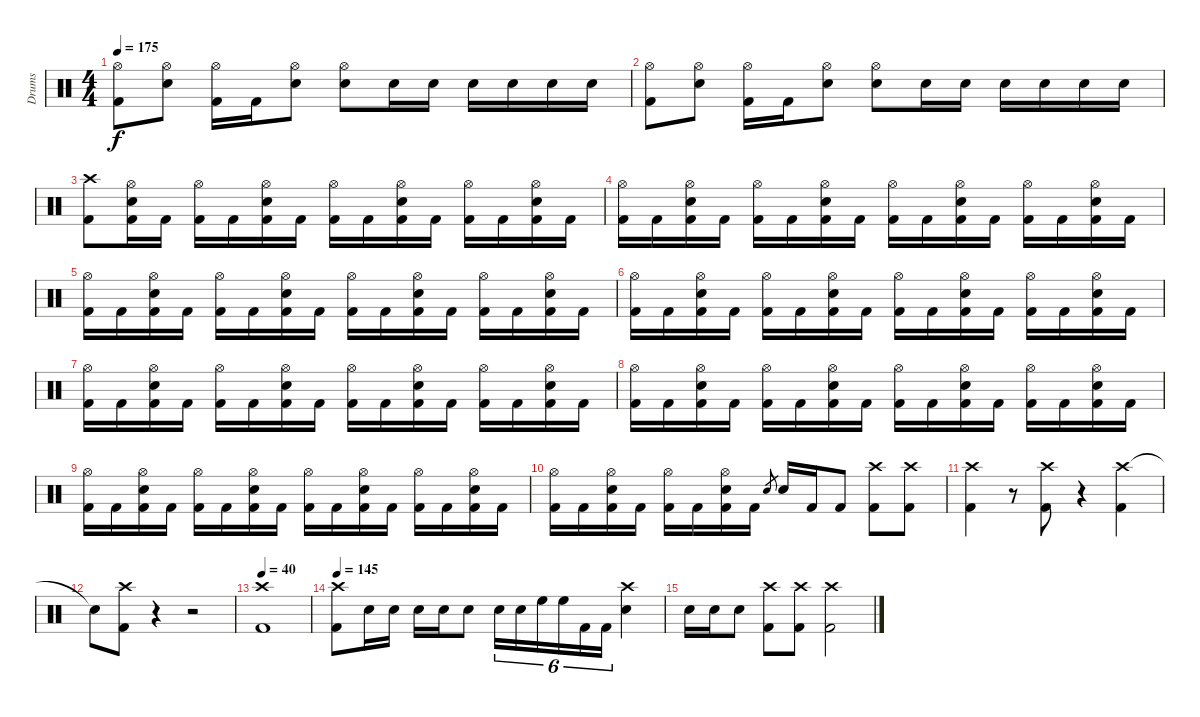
\track ("Drums" "Drums") {instrument percussion}
\staff {score}
\articulation defaults
\ts (4 4)
\tempo 175
\clef neutral
\ks c
("Hi-Hat (open)" "Kick (hit) 2").8{dy f} ("Hi-Hat (open)" "Snare (hit) 2").8 ("Hi-Hat (open)" "Kick (hit) 2").16 "Kick (hit) 2".16 ("Hi-Hat (open)" "Snare (hit) 2").8 ("Hi-Hat (open)" "Snare (hit) 2").8 "Snare (hit) 2".16 "Snare (hit) 2".16 "Snare (hit) 2".16 "Snare (hit) 2".16 "Snare (hit) 2".16 "Snare (hit) 2".16 |
("Hi-Hat (open)" "Kick (hit) 2").8 ("Hi-Hat (open)" "Snare (hit) 2").8 ("Hi-Hat (open)" "Kick (hit) 2").16 "Kick (hit) 2".16 ("Hi-Hat (open)" "Snare (hit) 2").8 ("Hi-Hat (open)" "Snare (hit) 2").8 "Snare (hit) 2".16 "Snare (hit) 2".16 "Snare (hit) 2".16 "Snare (hit) 2".16 "Snare (hit) 2".16 "Snare (hit) 2".16 |
("Crash high (hit)" "Kick (hit) 2").8 ("Hi-Hat (open)" "Snare (hit) 2" "Kick (hit) 2").16 "Kick (hit) 2".16 ("Hi-Hat (open)" "Kick (hit) 2").16 "Kick (hit) 2".16 ("Hi-Hat (open)" "Snare (hit) 2" "Kick (hit) 2").16 "Kick (hit) 2".16 ("Hi-Hat (open)" "Kick (hit) 2").16 "Kick (hit) 2".16 ("Hi-Hat (open)" "Snare (hit) 2" "Kick (hit) 2").16 "Kick (hit) 2".16 ("Hi-Hat (open)" "Kick (hit) 2").16 "Kick (hit) 2".16 ("Hi-Hat (open)" "Snare (hit) 2" "Kick (hit) 2").16 "Kick (hit) 2".16 |
("Hi-Hat (open)" "Kick (hit) 2").16 "Kick (hit) 2".16 ("Hi-Hat (open)" "Snare (hit) 2" "Kick (hit) 2").16 "Kick (hit) 2".16 ("Hi-Hat (open)" "Kick (hit) 2").16 "Kick (hit) 2".16 ("Hi-Hat (open)" "Snare (hit) 2" "Kick (hit) 2").16 "Kick (hit) 2".16 ("Hi-Hat (open)" "Kick (hit) 2").16 "Kick (hit) 2".16 ("Hi-Hat (open)" "Snare (hit) 2" "Kick (hit) 2").16 "Kick (hit) 2".16 ("Hi-Hat (open)" "Kick (hit) 2").16 "Kick (hit) 2".16 ("Hi-Hat (open)" "Snare (hit) 2" "Kick (hit) 2").16 "Kick (hit) 2".16 |
("Hi-Hat (open)" "Kick (hit) 2").16 "Kick (hit) 2".16 ("Hi-Hat (open)" "Snare (hit) 2" "Kick (hit) 2").16 "Kick (hit) 2".16 ("Hi-Hat (open)" "Kick (hit) 2").16 "Kick (hit) 2".16 ("Hi-Hat (open)" "Snare (hit) 2" "Kick (hit) 2").16 "Kick (hit) 2".16 ("Hi-Hat (open)" "Kick (hit) 2").16 "Kick (hit) 2".16 ("Hi-Hat (open)" "Snare (hit) 2" "Kick (hit) 2").16 "Kick (hit) 2".16 ("Hi-Hat (open)" "Kick (hit) 2").16 "Kick (hit) 2".16 ("Hi-Hat (open)" "Snare (hit) 2" "Kick (hit) 2").16 "Kick (hit) 2".16 |
("Hi-Hat (open)" "Kick (hit) 2").16 "Kick (hit) 2".16 ("Hi-Hat (open)" "Snare (hit) 2" "Kick (hit) 2").16 "Kick (hit) 2".16 ("Hi-Hat (open)" "Kick (hit) 2").16 "Kick (hit) 2".16 ("Hi-Hat (open)" "Snare (hit) 2" "Kick (hit) 2").16 "Kick (hit) 2".16 ("Hi-Hat (open)" "Kick (hit) 2").16 "Kick (hit) 2".16 ("Hi-Hat (open)" "Snare (hit) 2" "Kick (hit) 2").16 "Kick (hit) 2".16 ("Hi-Hat (open)" "Kick (hit) 2").16 "Kick (hit) 2".16 ("Hi-Hat (open)" "Snare (hit) 2" "Kick (hit) 2").16 "Kick (hit) 2".16 |
("Hi-Hat (open)" "Kick (hit) 2").16 "Kick (hit) 2".16 ("Hi-Hat (open)" "Snare (hit) 2" "Kick (hit) 2").16 "Kick (hit) 2".16 ("Hi-Hat (open)" "Kick (hit) 2").16 "Kick (hit) 2".16 ("Hi-Hat (open)" "Snare (hit) 2" "Kick (hit) 2").16 "Kick (hit) 2".16 ("Hi-Hat (open)" "Kick (hit) 2").16 "Kick (hit) 2".16 ("Hi-Hat (open)" "Snare (hit) 2" "Kick (hit) 2").16 "Kick (hit) 2".16 ("Hi-Hat (open)" "Kick (hit) 2").16 "Kick (hit) 2".16 ("Hi-Hat (open)" "Snare (hit) 2" "Kick (hit) 2").16 "Kick (hit) 2".16 |
("Hi-Hat (open)" "Kick (hit) 2").16 "Kick (hit) 2".16 ("Hi-Hat (open)" "Snare (hit) 2" "Kick (hit) 2").16 "Kick (hit) 2".16 ("Hi-Hat (open)" "Kick (hit) 2").16 "Kick (hit) 2".16 ("Hi-Hat (open)" "Snare (hit) 2" "Kick (hit) 2").16 "Kick (hit) 2".16 ("Hi-Hat (open)" "Kick (hit) 2").16 "Kick (hit) 2".16 ("Hi-Hat (open)" "Snare (hit) 2" "Kick (hit) 2").16 "Kick (hit) 2".16 ("Hi-Hat (open)" "Kick (hit) 2").16 "Kick (hit) 2".16 ("Hi-Hat (open)" "Snare (hit) 2" "Kick (hit) 2").16 "Kick (hit) 2".16 |
("Hi-Hat (open)" "Kick (hit) 2").16 "Kick (hit) 2".16 ("Hi-Hat (open)" "Snare (hit) 2" "Kick (hit) 2").16 "Kick (hit) 2".16 ("Hi-Hat (open)" "Kick (hit) 2").16 "Kick (hit) 2".16 ("Hi-Hat (open)" "Snare (hit) 2" "Kick (hit) 2").16 "Kick (hit) 2".16 ("Hi-Hat (open)" "Kick (hit) 2").16 "Kick (hit) 2".16 ("Hi-Hat (open)" "Snare (hit) 2" "Kick (hit) 2").16 "Kick (hit) 2".16 ("Hi-Hat (open)" "Kick (hit) 2").16 "Kick (hit) 2".16 ("Hi-Hat (open)" "Snare (hit) 2" "Kick (hit) 2").16 "Kick (hit) 2".16 |
("Hi-Hat (open)" "Kick (hit) 2").16 "Kick (hit) 2".16 ("Hi-Hat (open)" "Snare (hit) 2" "Kick (hit) 2").16 "Kick (hit) 2".16 ("Hi-Hat (open)" "Kick (hit) 2").16 "Kick (hit) 2".16 ("Hi-Hat (open)" "Snare (hit) 2" "Kick (hit) 2").16 "Kick (hit) 2".16 "Snare (hit) 2".8{gr} "Snare (hit) 2".16 "Kick (hit) 2".16 "Kick (hit) 2".8 ("Crash high (hit)" "Kick (hit) 2").8 ("Crash high (hit)" "Kick (hit) 2").8 |
("Crash high (hit)" "Kick (hit) 2").4 r.8 ("Crash high (hit)" "Kick (hit) 2").8 r.4 ("Crash high (hit)" "Kick (hit) 2").4 |
"Snare (hit)"{t}.8 ("Crash high (hit)" "Kick (hit) 2").8 r.4 r.2 |
\tempo 40
("Crash high (hit)" "Kick (hit) 2").1 |
\tempo 145
("Crash high (hit)" "Kick (hit) 2").8 "Snare (hit) 2".16 "Snare (hit) 2".16 "Snare (hit) 2".16 "Snare (hit) 2".16 "Snare (hit) 2".8 "Snare (hit) 2".16{tu (6 4)} "Snare (hit) 2".16{tu (6 4)} "High Floor Tom (hit)".16{tu (6 4)} "High Floor Tom (hit)".16{tu (6 4)} "Kick (hit) 2".16{tu (6 4)} "Kick (hit) 2".16{tu (6 4)} ("Crash high (hit)" "Snare (hit) 2").4 |
"Snare (hit) 2".16 "Snare (hit) 2".16 "Snare (hit) 2".8 ("Crash high (hit)" "Kick (hit) 2").8 ("Crash high (hit)" "Kick (hit) 2").8 ("Crash high (hit)" "Kick (hit) 2").2
